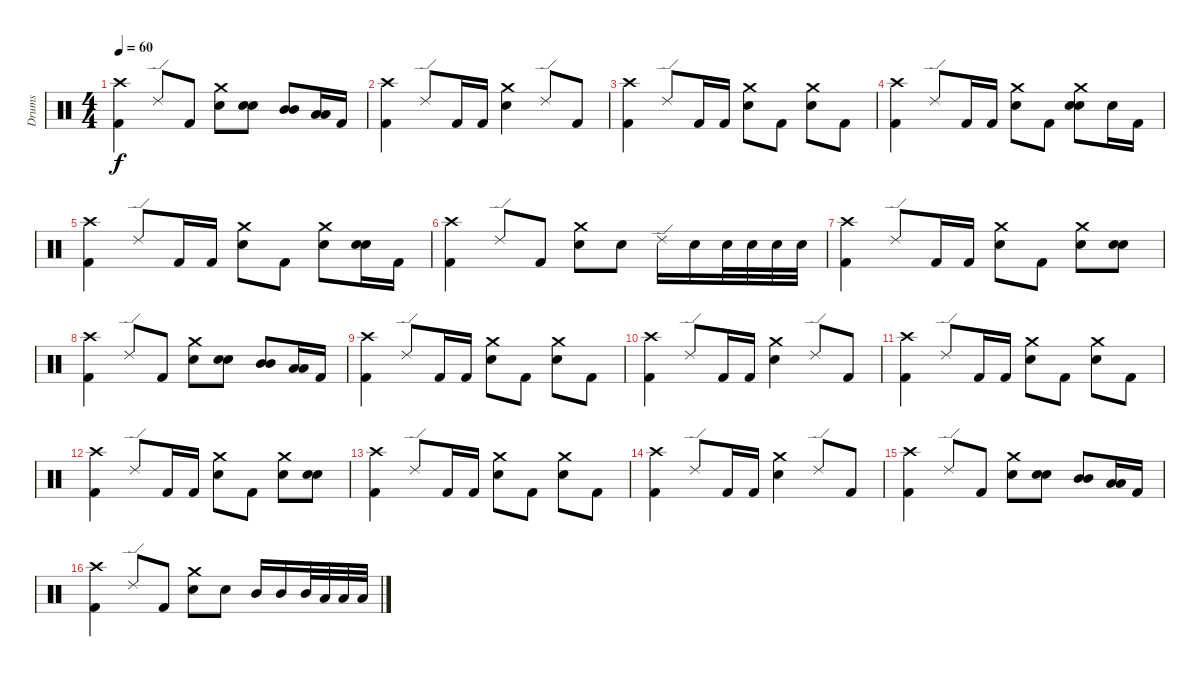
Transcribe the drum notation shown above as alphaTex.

\track ("Drums" "Drums") {instrument percussion}
\staff {score}
\articulation defaults
\ts (4 4)
\tempo 60
\clef neutral
\ks c
("Crash high (hit)" "Kick (hit) 2").4{dy f} "Ride (edge) 2".8 "Kick (hit) 2".8 ("Crash medium (hit)" "Electric Snare (hit)").8 ("Electric Snare (hit)" "Electric Snare (hit)").8{bu 60} ("Mid Tom (hit)" "Mid Tom (hit)").8{bu 60} ("Low Tom (hit)" "Low Tom (hit)").16{bu 60} "Kick (hit) 2".16 |
("Crash high (hit)" "Kick (hit) 2").4 "Ride (edge) 2".8 "Kick (hit) 2".16 "Kick (hit) 2".16 ("Crash medium (hit)" "Electric Snare (hit)").4 "Ride (edge) 2".8 "Kick (hit) 2".8 |
("Crash high (hit)" "Kick (hit) 2").4 "Ride (edge) 2".8 "Kick (hit) 2".16 "Kick (hit) 2".16 ("Crash medium (hit)" "Electric Snare (hit)").8 "Kick (hit) 2".8 ("Crash medium (hit)" "Electric Snare (hit)").8 "Kick (hit) 2".8 |
("Crash high (hit)" "Kick (hit) 2").4 "Ride (edge) 2".8 "Kick (hit) 2".16 "Kick (hit) 2".16 ("Crash medium (hit)" "Electric Snare (hit)").8 "Kick (hit) 2".8 ("Crash medium (hit)" "Electric Snare (hit)" "Electric Snare (hit)").8{bu 60} "Electric Snare (hit)".16 "Kick (hit) 2".16 |
("Crash high (hit)" "Kick (hit) 2").4 "Ride (edge) 2".8 "Kick (hit) 2".16 "Kick (hit) 2".16 ("Crash medium (hit)" "Electric Snare (hit)").8 "Kick (hit) 2".8 ("Crash medium (hit)" "Electric Snare (hit)").8 ("Electric Snare (hit)" "Electric Snare (hit)").16{bu 60} "Kick (hit) 2".16 |
("Crash high (hit)" "Kick (hit) 2").4 "Ride (edge) 2".8 "Kick (hit) 2".8 ("Crash medium (hit)" "Electric Snare (hit)").8 "Electric Snare (hit)".8 "Ride (edge) 2".16 "Electric Snare (hit)".16 "Electric Snare (hit)".32 "Electric Snare (hit)".32 "Electric Snare (hit)".32 "Electric Snare (hit)".32 |
("Crash high (hit)" "Kick (hit) 2").4 "Ride (edge) 2".8 "Kick (hit) 2".16 "Kick (hit) 2".16 ("Crash medium (hit)" "Electric Snare (hit)").8 "Kick (hit) 2".8 ("Crash medium (hit)" "Electric Snare (hit)").8 ("Electric Snare (hit)" "Electric Snare (hit)").8{bu 60} |
("Crash high (hit)" "Kick (hit) 2").4 "Ride (edge) 2".8 "Kick (hit) 2".8 ("Crash medium (hit)" "Electric Snare (hit)").8 ("Electric Snare (hit)" "Electric Snare (hit)").8{bu 60} ("Mid Tom (hit)" "Mid Tom (hit)").8{bu 60} ("Low Tom (hit)" "Low Tom (hit)").16{bu 60} "Kick (hit) 2".16 |
("Crash high (hit)" "Kick (hit) 2").4 "Ride (edge) 2".8 "Kick (hit) 2".16 "Kick (hit) 2".16 ("Crash medium (hit)" "Electric Snare (hit)").8 "Kick (hit) 2".8 ("Crash medium (hit)" "Electric Snare (hit)").8 "Kick (hit) 2".8 |
("Crash high (hit)" "Kick (hit) 2").4 "Ride (edge) 2".8 "Kick (hit) 2".16 "Kick (hit) 2".16 ("Crash medium (hit)" "Electric Snare (hit)").4 "Ride (edge) 2".8 "Kick (hit) 2".8 |
("Crash high (hit)" "Kick (hit) 2").4 "Ride (edge) 2".8 "Kick (hit) 2".16 "Kick (hit) 2".16 ("Crash medium (hit)" "Electric Snare (hit)").8 "Kick (hit) 2".8 ("Crash medium (hit)" "Electric Snare (hit)").8 "Kick (hit) 2".8 |
("Crash high (hit)" "Kick (hit) 2").4 "Ride (edge) 2".8 "Kick (hit) 2".16 "Kick (hit) 2".16 ("Crash medium (hit)" "Electric Snare (hit)").8 "Kick (hit) 2".8 ("Crash medium (hit)" "Electric Snare (hit)").8 ("Electric Snare (hit)" "Electric Snare (hit)").8{bu 60} |
("Crash high (hit)" "Kick (hit) 2").4 "Ride (edge) 2".8 "Kick (hit) 2".16 "Kick (hit) 2".16 ("Crash medium (hit)" "Electric Snare (hit)").8 "Kick (hit) 2".8 ("Crash medium (hit)" "Electric Snare (hit)").8 "Kick (hit) 2".8 |
("Crash high (hit)" "Kick (hit) 2").4 "Ride (edge) 2".8 "Kick (hit) 2".16 "Kick (hit) 2".16 ("Crash medium (hit)" "Electric Snare (hit)").4 "Ride (edge) 2".8 "Kick (hit) 2".8 |
("Crash high (hit)" "Kick (hit) 2").4 "Ride (edge) 2".8 "Kick (hit) 2".8 ("Crash medium (hit)" "Electric Snare (hit)").8 ("Electric Snare (hit)" "Electric Snare (hit)").8{bu 60} ("Mid Tom (hit)" "Mid Tom (hit)").8{bu 60} ("Low Tom (hit)" "Low Tom (hit)").16{bu 60} "Kick (hit) 2".16 |
("Crash high (hit)" "Kick (hit) 2").4 "Ride (edge) 2".8 "Kick (hit) 2".8 ("Crash medium (hit)" "Electric Snare (hit)").8 "Electric Snare (hit)".8 "Mid Tom (hit)".16 "Mid Tom (hit)".16 "Mid Tom (hit)".32 "Low Tom (hit)".32 "Low Tom (hit)".32 "Low Tom (hit)".32
